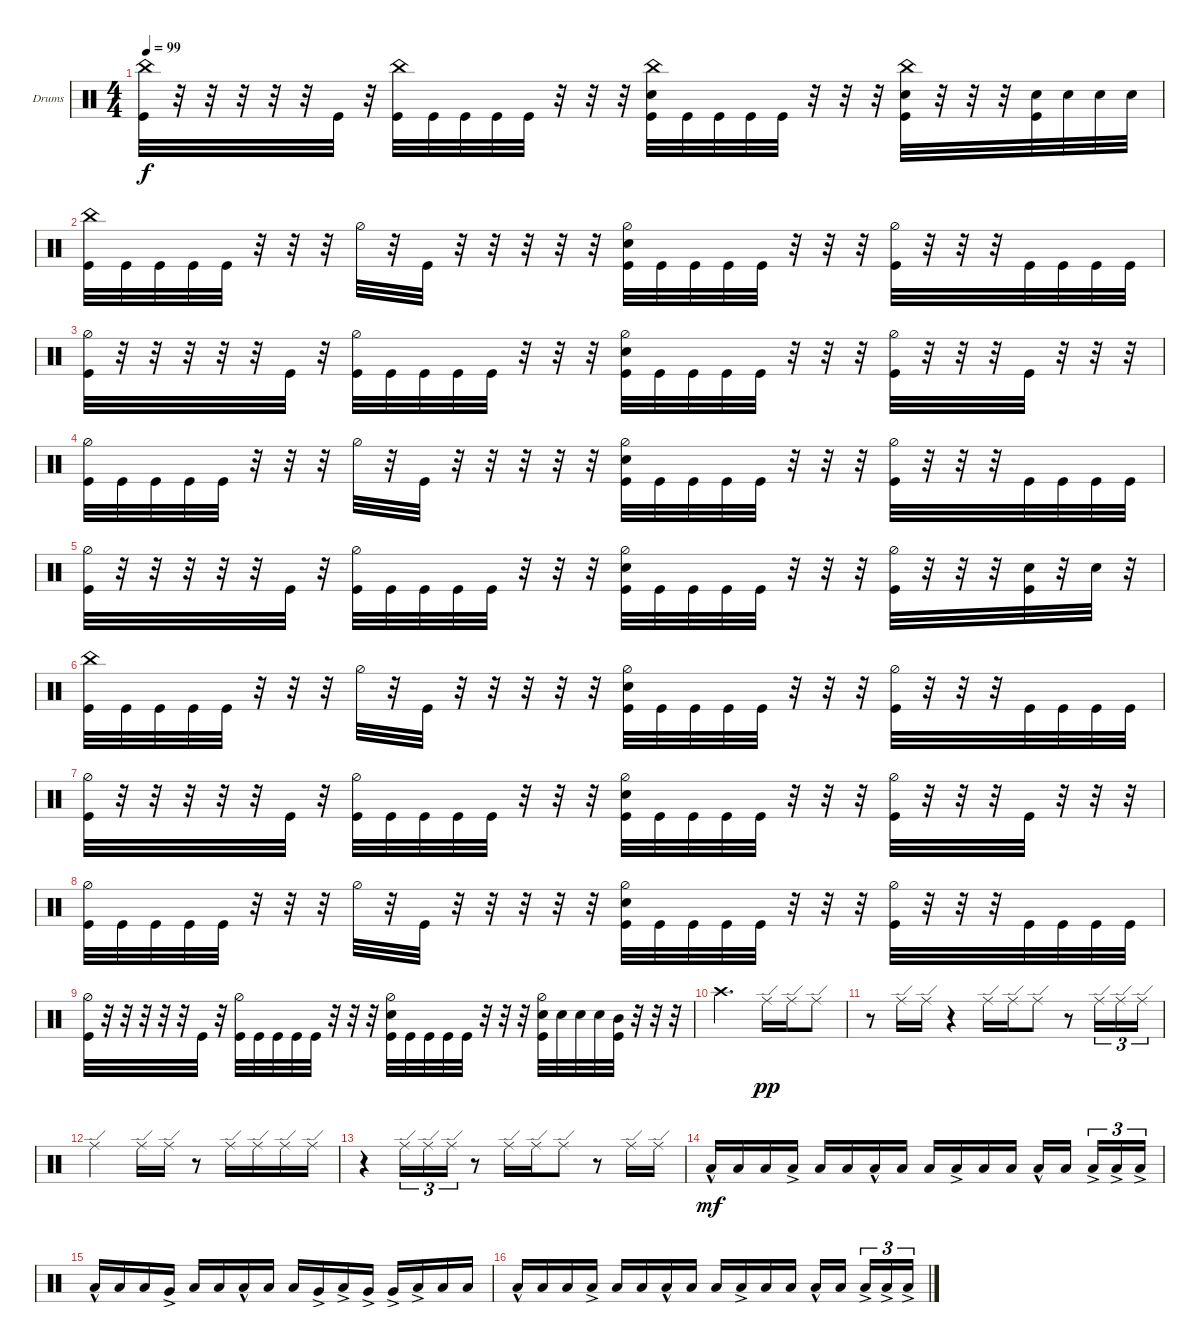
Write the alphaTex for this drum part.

\defaultSystemsLayout 4
\bracketExtendMode groupsimilarinstruments
\firstSystemTrackNameOrientation horizontal
\otherSystemsTrackNameOrientation horizontal
\track ("Drumkit" "Drums") {instrument percussion}
\staff {score}
\articulation defaults
\ts (4 4)
\tempo 99
\clef neutral
\ks c
("China (hit)" "Kick (hit)").32{dy f} r.32 r.32 r.32 r.32 r.32 "Kick (hit)".32 r.32 ("China (hit)" "Kick (hit)").32 "Kick (hit)".32 "Kick (hit)".32 "Kick (hit)".32 "Kick (hit)".32 r.32 r.32 r.32 ("China (hit)" "Snare (hit) 2" "Kick (hit)").32 "Kick (hit)".32 "Kick (hit)".32 "Kick (hit)".32 "Kick (hit)".32 r.32 r.32 r.32 ("China (hit)" "Kick (hit)" "Snare (hit) 2").32 r.32 r.32 r.32 ("Kick (hit)" "Snare (hit) 2").32 "Snare (hit) 2".32 "Snare (hit) 2".32 "Snare (hit) 2".32 |
("Kick (hit)" "China (hit)").32 "Kick (hit)".32 "Kick (hit)".32 "Kick (hit)".32 "Kick (hit)".32 r.32 r.32 r.32 "Hi-Hat (half)".32 r.32 "Kick (hit)".32 r.32 r.32 r.32 r.32 r.32 ("Snare (hit) 2" "Kick (hit)" "Hi-Hat (half)").32 "Kick (hit)".32 "Kick (hit)".32 "Kick (hit)".32 "Kick (hit)".32 r.32 r.32 r.32 ("Kick (hit)" "Hi-Hat (half)").32 r.32 r.32 r.32 "Kick (hit)".32 "Kick (hit)".32 "Kick (hit)".32 "Kick (hit)".32 |
("Kick (hit)" "Hi-Hat (half)").32 r.32 r.32 r.32 r.32 r.32 "Kick (hit)".32 r.32 ("Kick (hit)" "Hi-Hat (half)").32 "Kick (hit)".32 "Kick (hit)".32 "Kick (hit)".32 "Kick (hit)".32 r.32 r.32 r.32 ("Snare (hit) 2" "Kick (hit)" "Hi-Hat (half)").32 "Kick (hit)".32 "Kick (hit)".32 "Kick (hit)".32 "Kick (hit)".32 r.32 r.32 r.32 ("Kick (hit)" "Hi-Hat (half)").32 r.32 r.32 r.32 "Kick (hit)".32 r.32 r.32 r.32 |
("Kick (hit)" "Hi-Hat (half)").32 "Kick (hit)".32 "Kick (hit)".32 "Kick (hit)".32 "Kick (hit)".32 r.32 r.32 r.32 "Hi-Hat (half)".32 r.32 "Kick (hit)".32 r.32 r.32 r.32 r.32 r.32 ("Snare (hit) 2" "Kick (hit)" "Hi-Hat (half)").32 "Kick (hit)".32 "Kick (hit)".32 "Kick (hit)".32 "Kick (hit)".32 r.32 r.32 r.32 ("Kick (hit)" "Hi-Hat (half)").32 r.32 r.32 r.32 "Kick (hit)".32 "Kick (hit)".32 "Kick (hit)".32 "Kick (hit)".32 |
("Kick (hit)" "Hi-Hat (half)").32 r.32 r.32 r.32 r.32 r.32 "Kick (hit)".32 r.32 ("Kick (hit)" "Hi-Hat (half)").32 "Kick (hit)".32 "Kick (hit)".32 "Kick (hit)".32 "Kick (hit)".32 r.32 r.32 r.32 ("Snare (hit) 2" "Kick (hit)" "Hi-Hat (half)").32 "Kick (hit)".32 "Kick (hit)".32 "Kick (hit)".32 "Kick (hit)".32 r.32 r.32 r.32 ("Kick (hit)" "Hi-Hat (half)").32 r.32 r.32 r.32 ("Kick (hit)" "Snare (hit) 2").32 r.32 "Snare (hit) 2".32 r.32 |
("Kick (hit)" "China (hit)").32 "Kick (hit)".32 "Kick (hit)".32 "Kick (hit)".32 "Kick (hit)".32 r.32 r.32 r.32 "Hi-Hat (half)".32 r.32 "Kick (hit)".32 r.32 r.32 r.32 r.32 r.32 ("Snare (hit) 2" "Kick (hit)" "Hi-Hat (half)").32 "Kick (hit)".32 "Kick (hit)".32 "Kick (hit)".32 "Kick (hit)".32 r.32 r.32 r.32 ("Kick (hit)" "Hi-Hat (half)").32 r.32 r.32 r.32 "Kick (hit)".32 "Kick (hit)".32 "Kick (hit)".32 "Kick (hit)".32 |
("Kick (hit)" "Hi-Hat (half)").32 r.32 r.32 r.32 r.32 r.32 "Kick (hit)".32 r.32 ("Kick (hit)" "Hi-Hat (half)").32 "Kick (hit)".32 "Kick (hit)".32 "Kick (hit)".32 "Kick (hit)".32 r.32 r.32 r.32 ("Snare (hit) 2" "Kick (hit)" "Hi-Hat (half)").32 "Kick (hit)".32 "Kick (hit)".32 "Kick (hit)".32 "Kick (hit)".32 r.32 r.32 r.32 ("Kick (hit)" "Hi-Hat (half)").32 r.32 r.32 r.32 "Kick (hit)".32 r.32 r.32 r.32 |
("Kick (hit)" "Hi-Hat (half)").32 "Kick (hit)".32 "Kick (hit)".32 "Kick (hit)".32 "Kick (hit)".32 r.32 r.32 r.32 "Hi-Hat (half)".32 r.32 "Kick (hit)".32 r.32 r.32 r.32 r.32 r.32 ("Snare (hit) 2" "Kick (hit)" "Hi-Hat (half)").32 "Kick (hit)".32 "Kick (hit)".32 "Kick (hit)".32 "Kick (hit)".32 r.32 r.32 r.32 ("Kick (hit)" "Hi-Hat (half)").32 r.32 r.32 r.32 "Kick (hit)".32 "Kick (hit)".32 "Kick (hit)".32 "Kick (hit)".32 |
("Kick (hit)" "Hi-Hat (half)").32 r.32 r.32 r.32 r.32 r.32 "Kick (hit)".32 r.32 ("Kick (hit)" "Hi-Hat (half)").32 "Kick (hit)".32 "Kick (hit)".32 "Kick (hit)".32 "Kick (hit)".32 r.32 r.32 r.32 ("Snare (hit) 2" "Kick (hit)" "Hi-Hat (half)").32 "Kick (hit)".32 "Kick (hit)".32 "Kick (hit)".32 "Kick (hit)".32 r.32 r.32 r.32 ("Kick (hit)" "Hi-Hat (half)" "Snare (hit) 2").32 "Snare (hit) 2".32 "Snare (hit) 2".32 "Snare (hit) 2".32 ("Kick (hit)" "Mid Tom (hit)").32 r.32 r.32 r.32 |
"Crash high (hit)".2{d} "Ride (edge)".16{dy pp} "Ride (edge)".16 "Ride (edge)".8 |
r.8 "Ride (edge)".16 "Ride (edge)".16 r.4 "Ride (edge)".16 "Ride (edge)".16 "Ride (edge)".8 r.8 "Ride (edge)".16{tu (3 2)} "Ride (edge)".16{tu (3 2)} "Ride (edge)".16{tu (3 2)} |
"Ride (edge)".2 "Ride (edge)".16 "Ride (edge)".16 r.8 "Ride (edge)".16 "Ride (edge)".16 "Ride (edge)".16 "Ride (edge)".16 |
r.4 "Ride (edge)".16{tu (3 2)} "Ride (edge)".16{tu (3 2)} "Ride (edge)".16{tu (3 2)} r.8 "Ride (edge)".16 "Ride (edge)".16 "Ride (edge)".8 r.8 "Ride (edge)".16 "Ride (edge)".16 |
"Low Tom (hit)"{hac}.16{dy mf} "Low Tom (hit)".16 "Low Tom (hit)".16 "Low Tom (hit)"{ac}.16 "Low Tom (hit)".16 "Low Tom (hit)".16 "Low Tom (hit)"{hac}.16 "Low Tom (hit)".16 "Low Tom (hit)".16 "Low Tom (hit)"{ac}.16 "Low Tom (hit)".16 "Low Tom (hit)".16 "Low Tom (hit)"{hac}.16 "Low Tom (hit)".16 "Low Tom (hit)"{ac}.16{tu (3 2)} "Low Tom (hit)"{ac}.16{tu (3 2)} "Low Tom (hit)"{ac}.16{tu (3 2)} |
"Low Tom (hit)"{hac}.16 "Low Tom (hit)".16 "Low Tom (hit)".16 "Very Low Tom (hit)"{ac}.16 "Low Tom (hit)".16 "Low Tom (hit)".16 "Low Tom (hit)"{hac}.16 "Low Tom (hit)".16 "Low Tom (hit)".16 "Very Low Tom (hit)"{ac}.16 "Low Tom (hit)"{ac}.16 "Very Low Tom (hit)"{ac}.16 "Very Low Tom (hit)"{ac}.16 "Low Tom (hit)"{ac}.16 "Low Tom (hit)".16 "Low Tom (hit)".16 |
"Low Tom (hit)"{hac}.16 "Low Tom (hit)".16 "Low Tom (hit)".16 "Low Tom (hit)"{ac}.16 "Low Tom (hit)".16 "Low Tom (hit)".16 "Low Tom (hit)"{hac}.16 "Low Tom (hit)".16 "Low Tom (hit)".16 "Low Tom (hit)"{ac}.16 "Low Tom (hit)".16 "Low Tom (hit)".16 "Low Tom (hit)"{hac}.16 "Low Tom (hit)".16 "Low Tom (hit)"{ac}.16{tu (3 2)} "Low Tom (hit)"{ac}.16{tu (3 2)} "Low Tom (hit)"{ac}.16{tu (3 2)}
